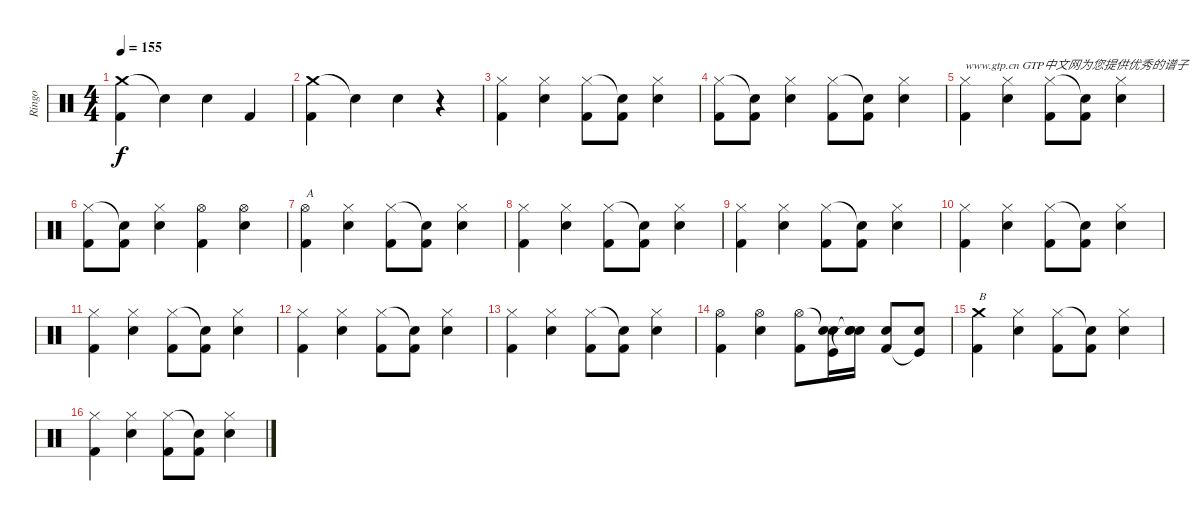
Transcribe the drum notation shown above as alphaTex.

\track ("Ringo" "Ringo") {instrument percussion}
\staff {score}
\articulation defaults
\ts (4 4)
\tempo 155
\clef neutral
\ks c
("Crash medium (hit)" "Kick (hit) 2").4{dy f} "Snare (hit)"{t}.4 "Snare (hit) 2".4 "Kick (hit) 2".4 |
("Crash medium (hit)" "Kick (hit) 2").4 "Snare (hit)"{t}.4 "Snare (hit) 2".4 r.4 |
("Hi-Hat (closed)" "Kick (hit) 2").4 ("Hi-Hat (closed)" "Snare (hit) 2").4 ("Hi-Hat (closed)" "Kick (hit) 2").8 ("Snare (hit)"{t} "Kick (hit) 2").8 ("Hi-Hat (closed)" "Snare (hit) 2").4 |
("Hi-Hat (closed)" "Kick (hit) 2").8 ("Snare (hit)"{t} "Kick (hit) 2").8 ("Hi-Hat (closed)" "Snare (hit) 2").4 ("Hi-Hat (closed)" "Kick (hit) 2").8 ("Snare (hit)"{t} "Kick (hit) 2").8 ("Hi-Hat (closed)" "Snare (hit) 2").4 |
("Hi-Hat (closed)" "Kick (hit) 2").4{txt "www.gtp.cn GTP中文网为您提供优秀的谱子"} ("Hi-Hat (closed)" "Snare (hit) 2").4 ("Hi-Hat (closed)" "Kick (hit) 2").8 ("Snare (hit)"{t} "Kick (hit) 2").8 ("Hi-Hat (closed)" "Snare (hit) 2").4 |
("Hi-Hat (closed)" "Kick (hit) 2").8 ("Snare (hit)"{t} "Kick (hit) 2").8 ("Hi-Hat (closed)" "Snare (hit) 2").4 ("Hi-Hat (open)" "Kick (hit) 2").4 ("Hi-Hat (open)" "Snare (hit) 2").4 |
("Hi-Hat (open)" "Kick (hit) 2").4{txt "A"} ("Hi-Hat (closed)" "Snare (hit) 2").4 ("Hi-Hat (closed)" "Kick (hit) 2").8 ("Snare (hit)"{t} "Kick (hit) 2").8 ("Hi-Hat (closed)" "Snare (hit) 2").4 |
("Hi-Hat (closed)" "Kick (hit) 2").4 ("Hi-Hat (closed)" "Snare (hit) 2").4 ("Hi-Hat (closed)" "Kick (hit) 2").8 ("Snare (hit)"{t} "Kick (hit) 2").8 ("Hi-Hat (closed)" "Snare (hit) 2").4 |
("Hi-Hat (closed)" "Kick (hit) 2").4 ("Hi-Hat (closed)" "Snare (hit) 2").4 ("Hi-Hat (closed)" "Kick (hit) 2").8 ("Snare (hit)"{t} "Kick (hit) 2").8 ("Hi-Hat (closed)" "Snare (hit) 2").4 |
("Hi-Hat (closed)" "Kick (hit) 2").4 ("Hi-Hat (closed)" "Snare (hit) 2").4 ("Hi-Hat (closed)" "Kick (hit) 2").8 ("Snare (hit)"{t} "Kick (hit) 2").8 ("Hi-Hat (closed)" "Snare (hit) 2").4 |
("Hi-Hat (closed)" "Kick (hit) 2").4 ("Hi-Hat (closed)" "Snare (hit) 2").4 ("Hi-Hat (closed)" "Kick (hit) 2").8 ("Snare (hit)"{t} "Kick (hit) 2").8 ("Hi-Hat (closed)" "Snare (hit) 2").4 |
("Hi-Hat (closed)" "Kick (hit) 2").4 ("Hi-Hat (closed)" "Snare (hit) 2").4 ("Hi-Hat (closed)" "Kick (hit) 2").8 ("Snare (hit)"{t} "Kick (hit) 2").8 ("Hi-Hat (closed)" "Snare (hit) 2").4 |
("Hi-Hat (closed)" "Kick (hit) 2").4 ("Hi-Hat (closed)" "Snare (hit) 2").4 ("Hi-Hat (closed)" "Kick (hit) 2").8 ("Snare (hit)"{t} "Kick (hit) 2").8 ("Hi-Hat (closed)" "Snare (hit) 2").4 |
("Hi-Hat (open)" "Kick (hit) 2").4 ("Hi-Hat (open)" "Snare (hit) 2").4 ("Hi-Hat (open)" "Kick (hit) 2").8 ("Snare (hit)"{t} "Snare (hit) 2" "Kick (hit)").16 ("Snare (hit)"{t} "Snare (hit) 2" "Snare (hit)"{t}).16 ("Snare (hit) 2" "Kick (hit) 2").8 ("Snare (hit) 2" "Kick (hit)"{t}).8 |
("Crash medium (hit)" "Kick (hit) 2").4{txt "B"} ("Hi-Hat (closed)" "Snare (hit) 2").4 ("Hi-Hat (closed)" "Kick (hit) 2").8 ("Snare (hit)"{t} "Kick (hit) 2").8 ("Hi-Hat (closed)" "Snare (hit) 2").4 |
("Hi-Hat (closed)" "Kick (hit) 2").4{txt " "} ("Hi-Hat (closed)" "Snare (hit) 2").4 ("Hi-Hat (closed)" "Kick (hit) 2").8 ("Snare (hit)"{t} "Kick (hit) 2").8 ("Hi-Hat (closed)" "Snare (hit) 2").4
